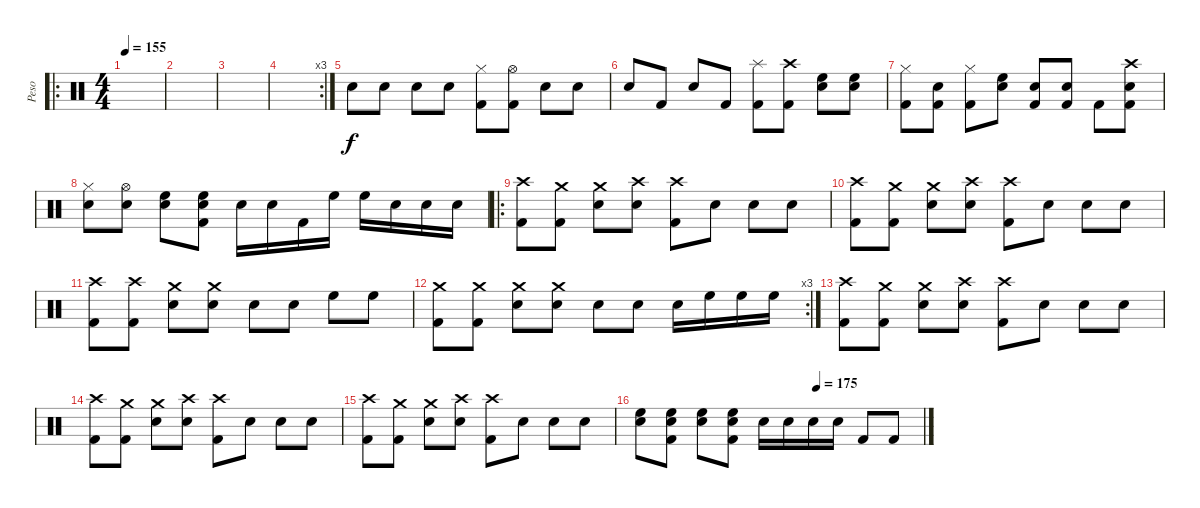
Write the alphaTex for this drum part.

\track ("Peso" "Peso") {instrument percussion}
\staff {score}
\articulation defaults
\ro
\ts (4 4)
\tempo 155
\clef neutral
\ks c
|
|
|
\rc 3
|
"Snare (hit) 2".8 "Snare (hit) 2".8 "Snare (hit) 2".8 "Snare (hit) 2".8 ("Hi-Hat (closed)" "Kick (hit) 2").8 ("Hi-Hat (open)" "Kick (hit) 2").8 "Snare (hit) 2".8 "Snare (hit) 2".8 |
"Snare (hit) 2".8 "Kick (hit) 2".8 "Snare (hit) 2".8 "Kick (hit) 2".8 ("Splash (hit)" "Kick (hit) 2").8 ("Crash high (hit)" "Kick (hit) 2").8 ("High Floor Tom (hit)" "Snare (hit) 2").8 ("High Floor Tom (hit)" "Snare (hit) 2").8 |
("Kick (hit) 2" "Hi-Hat (closed)").8 ("Kick (hit) 2" "Snare (hit) 2").8 ("Hi-Hat (closed)" "Kick (hit) 2").8 ("High Floor Tom (hit)" "Snare (hit) 2").8 ("Snare (hit) 2" "Kick (hit) 2").8 ("Snare (hit) 2" "Kick (hit) 2").8 "Kick (hit) 2".8 ("Snare (hit) 2" "Crash high (hit)" "Kick (hit) 2").8 |
("Snare (hit) 2" "Hi-Hat (closed)").8 ("Snare (hit) 2" "Hi-Hat (open)").8 ("Snare (hit) 2" "High Floor Tom (hit)").8 ("Kick (hit) 2" "Snare (hit) 2" "High Floor Tom (hit)").8 "Snare (hit) 2".16 "Snare (hit) 2".16 "Kick (hit) 2".16 "High Floor Tom (hit)".16 "High Floor Tom (hit)".16 "Snare (hit) 2".16 "Snare (hit) 2".16 "Snare (hit) 2".16 |
\ro
("Crash high (hit)" "Kick (hit) 2").8 ("Crash medium (hit)" "Kick (hit) 2").8 ("Crash medium (hit)" "Snare (hit) 2").8 ("Crash high (hit)" "Snare (hit) 2").8 ("Crash high (hit)" "Kick (hit) 2").8 "Snare (hit) 2".8 "Snare (hit) 2".8 "Snare (hit) 2".8 |
("Crash high (hit)" "Kick (hit) 2").8 ("Crash medium (hit)" "Kick (hit) 2").8 ("Crash medium (hit)" "Snare (hit) 2").8 ("Crash high (hit)" "Snare (hit) 2").8 ("Crash high (hit)" "Kick (hit) 2").8 "Snare (hit) 2".8 "Snare (hit) 2".8 "Snare (hit) 2".8 |
("Crash high (hit)" "Kick (hit) 2").8 ("Crash high (hit)" "Kick (hit) 2").8 ("Crash medium (hit)" "Snare (hit) 2").8 ("Crash medium (hit)" "Snare (hit) 2").8 "Snare (hit) 2".8 "Snare (hit) 2".8 "High Floor Tom (hit)".8 "High Floor Tom (hit)".8 |
\rc 3
("Crash medium (hit)" "Kick (hit) 2").8 ("Crash medium (hit)" "Kick (hit) 2").8 ("Crash medium (hit)" "Snare (hit) 2").8 ("Crash medium (hit)" "Snare (hit) 2").8 "Snare (hit) 2".8 "Snare (hit) 2".8 "Snare (hit) 2".16 "High Floor Tom (hit)".16 "High Floor Tom (hit)".16 "High Floor Tom (hit)".16 |
("Crash high (hit)" "Kick (hit) 2").8 ("Crash medium (hit)" "Kick (hit) 2").8 ("Crash medium (hit)" "Snare (hit) 2").8 ("Crash high (hit)" "Snare (hit) 2").8 ("Crash high (hit)" "Kick (hit) 2").8 "Snare (hit) 2".8 "Snare (hit) 2".8 "Snare (hit) 2".8 |
("Crash high (hit)" "Kick (hit) 2").8 ("Crash medium (hit)" "Kick (hit) 2").8 ("Crash medium (hit)" "Snare (hit) 2").8 ("Crash high (hit)" "Snare (hit) 2").8 ("Crash high (hit)" "Kick (hit) 2").8 "Snare (hit) 2".8 "Snare (hit) 2".8 "Snare (hit) 2".8 |
("Crash high (hit)" "Kick (hit) 2").8 ("Crash medium (hit)" "Kick (hit) 2").8 ("Crash medium (hit)" "Snare (hit) 2").8 ("Crash high (hit)" "Snare (hit) 2").8 ("Crash high (hit)" "Kick (hit) 2").8 "Snare (hit) 2".8 "Snare (hit) 2".8 "Snare (hit) 2".8 |
\tempo (175 0.625)
("High Floor Tom (hit)" "Snare (hit) 2").8 ("High Floor Tom (hit)" "Kick (hit) 2" "Snare (hit) 2").8 ("High Floor Tom (hit)" "Snare (hit) 2").8 ("High Floor Tom (hit)" "Kick (hit) 2" "Snare (hit) 2").8 "Snare (hit) 2".16 "Snare (hit) 2".16 "Snare (hit) 2".16 "Snare (hit) 2".16 "Kick (hit) 2"{x}.8 "Kick (hit) 2"{x}.8
